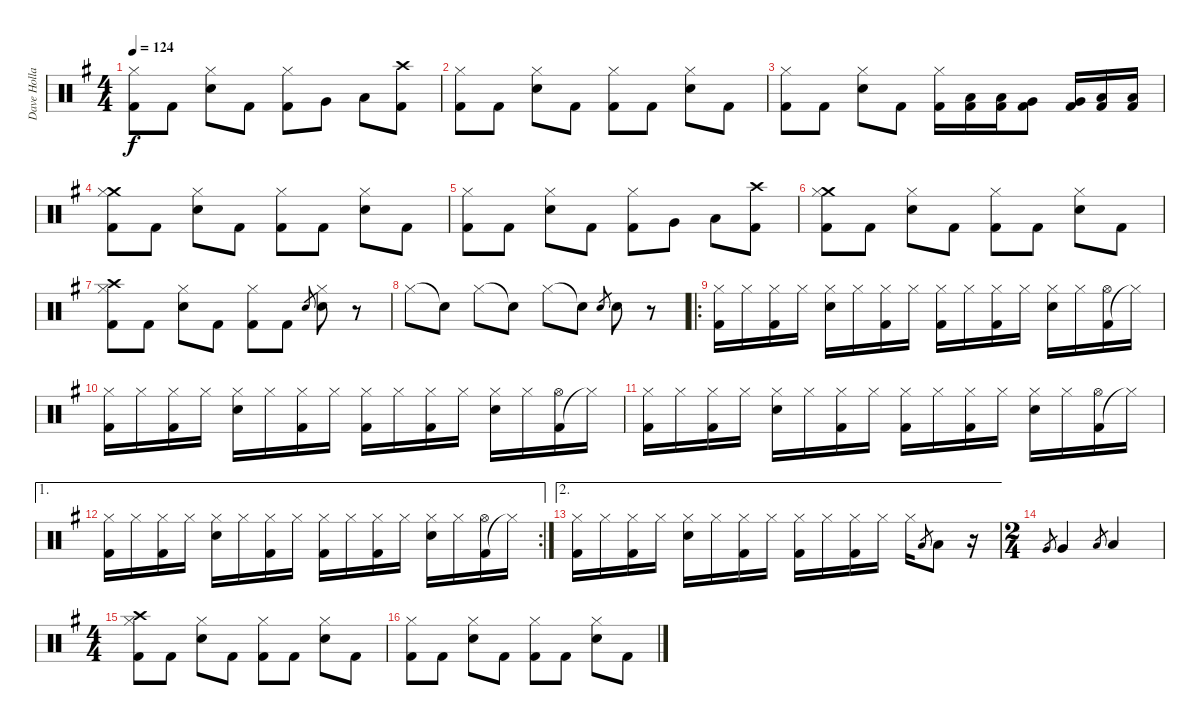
\track ("Dave Holland" "Dave Holla") {instrument percussion}
\staff {score}
\articulation defaults
\ts (4 4)
\tempo 124
\clef neutral
\ks g
("Kick (hit) 2" "Hi-Hat (closed)").8{dy f} "Kick (hit) 2".8 ("Snare (hit) 2" "Hi-Hat (closed)").8 "Kick (hit) 2".8 ("Kick (hit) 2" "Hi-Hat (closed)").8 "Very Low Tom (hit)".8 "Low Floor Tom (hit)".8 ("Crash high (hit)" "Kick (hit) 2").8 |
("Kick (hit) 2" "Hi-Hat (closed)").8 "Kick (hit) 2".8 ("Snare (hit) 2" "Hi-Hat (closed)").8 "Kick (hit) 2".8 ("Kick (hit) 2" "Hi-Hat (closed)").8 "Kick (hit) 2".8 ("Snare (hit) 2" "Hi-Hat (closed)").8 "Kick (hit) 2".8 |
("Kick (hit) 2" "Hi-Hat (closed)").8 "Kick (hit) 2".8 ("Snare (hit) 2" "Hi-Hat (closed)").8 "Kick (hit) 2".8 ("Kick (hit) 2" "Hi-Hat (closed)").16 ("Kick (hit) 2" "Low Tom (hit)").16 ("Kick (hit) 2" "Low Tom (hit)").16 ("Kick (hit) 2" "Very Low Tom (hit)").8 ("Kick (hit) 2" "Very Low Tom (hit)").16 ("Kick (hit) 2" "Low Floor Tom (hit)").16 ("Kick (hit) 2" "Low Floor Tom (hit)").16 |
("Kick (hit) 2" "Crash medium (hit)" "Hi-Hat (closed)").8 "Kick (hit) 2".8 ("Snare (hit) 2" "Hi-Hat (closed)").8 "Kick (hit) 2".8 ("Kick (hit) 2" "Hi-Hat (closed)").8 "Kick (hit) 2".8 ("Snare (hit) 2" "Hi-Hat (closed)").8 "Kick (hit) 2".8 |
("Kick (hit) 2" "Hi-Hat (closed)").8 "Kick (hit) 2".8 ("Snare (hit) 2" "Hi-Hat (closed)").8 "Kick (hit) 2".8 ("Kick (hit) 2" "Hi-Hat (closed)").8 "Very Low Tom (hit)".8 "Low Floor Tom (hit)".8 ("Crash high (hit)" "Kick (hit) 2").8 |
("Kick (hit) 2" "Crash medium (hit)" "Hi-Hat (closed)").8 "Kick (hit) 2".8 ("Snare (hit) 2" "Hi-Hat (closed)").8 "Kick (hit) 2".8 ("Kick (hit) 2" "Hi-Hat (closed)").8 "Kick (hit) 2".8 ("Snare (hit) 2" "Hi-Hat (closed)").8 "Kick (hit) 2".8 |
("Kick (hit) 2" "Crash high (hit)" "Hi-Hat (closed)").8 "Kick (hit) 2".8 ("Snare (hit) 2" "Hi-Hat (closed)").8 "Kick (hit) 2".8 ("Kick (hit) 2" "Hi-Hat (closed)").8 "Kick (hit) 2".8 "Snare (hit) 2".8{gr} ("Snare (hit) 2" "Hi-Hat (closed)").8 r.8 |
"Hi-Hat (closed)".8 "Snare (hit)"{t}.8 "Hi-Hat (closed)".8 "Snare (hit)"{t}.8 "Hi-Hat (closed)".8 "Snare (hit)"{t}.8 "Snare (hit) 2".8{gr} "Snare (hit) 2".8 r.8 |
\ro
("Kick (hit) 2" "Hi-Hat (closed)").16 "Hi-Hat (closed)".16 ("Kick (hit) 2" "Hi-Hat (closed)").16 "Hi-Hat (closed)".16 ("Snare (hit) 2" "Hi-Hat (closed)").16 "Hi-Hat (closed)".16 ("Kick (hit) 2" "Hi-Hat (closed)").16 "Hi-Hat (closed)".16 ("Kick (hit) 2" "Hi-Hat (closed)").16 "Hi-Hat (closed)".16 ("Kick (hit) 2" "Hi-Hat (closed)").16 "Hi-Hat (closed)".16 ("Snare (hit) 2" "Hi-Hat (closed)").16 "Hi-Hat (closed)".16 ("Kick (hit) 2" "Hi-Hat (open)").16 "Hi-Hat (closed)"{t}.16 |
("Kick (hit) 2" "Hi-Hat (closed)").16 "Hi-Hat (closed)".16 ("Kick (hit) 2" "Hi-Hat (closed)").16 "Hi-Hat (closed)".16 ("Snare (hit) 2" "Hi-Hat (closed)").16 "Hi-Hat (closed)".16 ("Kick (hit) 2" "Hi-Hat (closed)").16 "Hi-Hat (closed)".16 ("Kick (hit) 2" "Hi-Hat (closed)").16 "Hi-Hat (closed)".16 ("Kick (hit) 2" "Hi-Hat (closed)").16 "Hi-Hat (closed)".16 ("Snare (hit) 2" "Hi-Hat (closed)").16 "Hi-Hat (closed)".16 ("Kick (hit) 2" "Hi-Hat (open)").16 "Hi-Hat (closed)"{t}.16 |
("Kick (hit) 2" "Hi-Hat (closed)").16 "Hi-Hat (closed)".16 ("Kick (hit) 2" "Hi-Hat (closed)").16 "Hi-Hat (closed)".16 ("Snare (hit) 2" "Hi-Hat (closed)").16 "Hi-Hat (closed)".16 ("Kick (hit) 2" "Hi-Hat (closed)").16 "Hi-Hat (closed)".16 ("Kick (hit) 2" "Hi-Hat (closed)").16 "Hi-Hat (closed)".16 ("Kick (hit) 2" "Hi-Hat (closed)").16 "Hi-Hat (closed)".16 ("Snare (hit) 2" "Hi-Hat (closed)").16 "Hi-Hat (closed)".16 ("Kick (hit) 2" "Hi-Hat (open)").16 "Hi-Hat (closed)"{t}.16 |
\ae 1
\rc 2
("Kick (hit) 2" "Hi-Hat (closed)").16 "Hi-Hat (closed)".16 ("Kick (hit) 2" "Hi-Hat (closed)").16 "Hi-Hat (closed)".16 ("Snare (hit) 2" "Hi-Hat (closed)").16 "Hi-Hat (closed)".16 ("Kick (hit) 2" "Hi-Hat (closed)").16 "Hi-Hat (closed)".16 ("Kick (hit) 2" "Hi-Hat (closed)").16 "Hi-Hat (closed)".16 ("Kick (hit) 2" "Hi-Hat (closed)").16 "Hi-Hat (closed)".16 ("Snare (hit) 2" "Hi-Hat (closed)").16 "Hi-Hat (closed)".16 ("Kick (hit) 2" "Hi-Hat (open)").16 "Hi-Hat (closed)"{t}.16 |
\ae 2
("Kick (hit) 2" "Hi-Hat (closed)").16 "Hi-Hat (closed)".16 ("Kick (hit) 2" "Hi-Hat (closed)").16 "Hi-Hat (closed)".16 ("Snare (hit) 2" "Hi-Hat (closed)").16 "Hi-Hat (closed)".16 ("Kick (hit) 2" "Hi-Hat (closed)").16 "Hi-Hat (closed)".16 ("Kick (hit) 2" "Hi-Hat (closed)").16 "Hi-Hat (closed)".16 ("Kick (hit) 2" "Hi-Hat (closed)").16 "Hi-Hat (closed)".16 "Hi-Hat (closed)".16 "Low Tom (hit)".8{gr} "Low Tom (hit)".8 r.16 |
\ts (2 4)
"Very Low Tom (hit)".8{gr} "Very Low Tom (hit)".4 "Low Floor Tom (hit)".8{gr} "Low Floor Tom (hit)".4 |
\ts (4 4)
("Kick (hit) 2" "Crash high (hit)" "Hi-Hat (closed)").8 "Kick (hit) 2".8 ("Snare (hit) 2" "Hi-Hat (closed)").8 "Kick (hit) 2".8 ("Kick (hit) 2" "Hi-Hat (closed)").8 "Kick (hit) 2".8 ("Snare (hit) 2" "Hi-Hat (closed)").8 "Kick (hit) 2".8 |
("Kick (hit) 2" "Hi-Hat (closed)").8 "Kick (hit) 2".8 ("Snare (hit) 2" "Hi-Hat (closed)").8 "Kick (hit) 2".8 ("Kick (hit) 2" "Hi-Hat (closed)").8 "Kick (hit) 2".8 ("Snare (hit) 2" "Hi-Hat (closed)").8 "Kick (hit) 2".8
